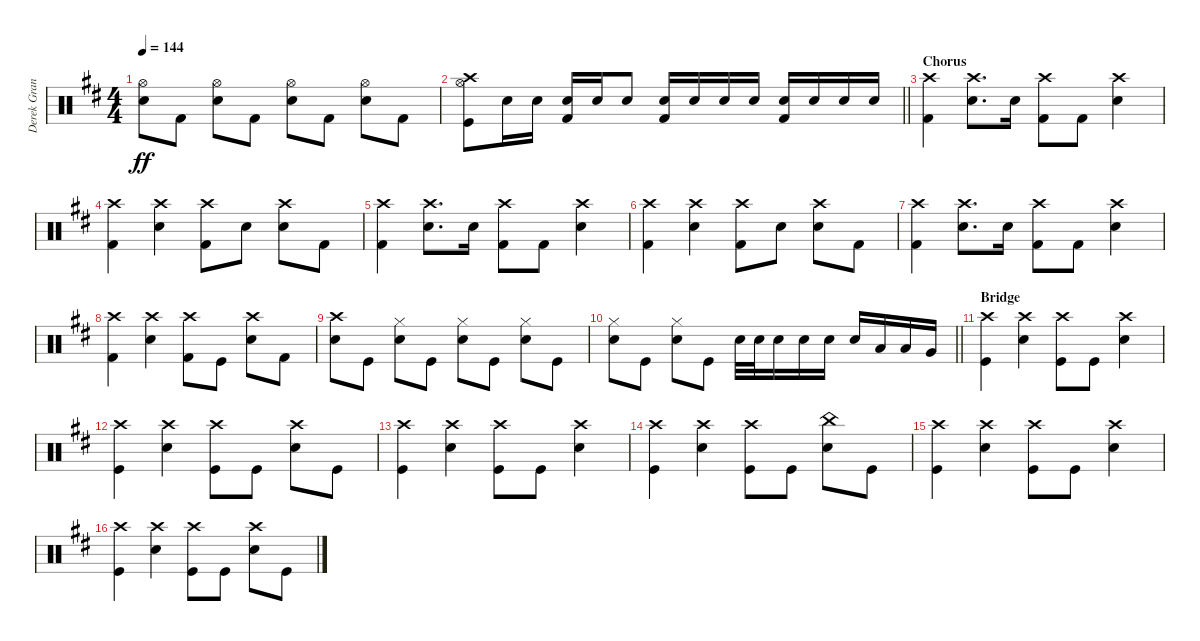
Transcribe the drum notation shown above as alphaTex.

\track ("Derek Grant - Drums" "Derek Gran") {instrument percussion}
\staff {score}
\articulation defaults
\ts (4 4)
\tempo 144
\clef neutral
\ks d
("Snare (hit) 2" "Hi-Hat (open)").8{dy ff} "Kick (hit) 2".8 ("Snare (hit) 2" "Hi-Hat (open)").8 "Kick (hit) 2".8 ("Snare (hit) 2" "Hi-Hat (open)").8 "Kick (hit) 2".8 ("Snare (hit) 2" "Hi-Hat (open)").8 "Kick (hit) 2".8 |
\barLineRight lightlight
("Hi-Hat (open)" "Crash high (hit)" "Kick (hit)").8 "Snare (hit) 2".16 "Snare (hit) 2".16 ("Snare (hit) 2" "Kick (hit) 2").16 "Snare (hit) 2".16 "Snare (hit) 2".8 ("Snare (hit) 2" "Kick (hit) 2").16 "Snare (hit) 2".16 "Snare (hit) 2".16 "Snare (hit) 2".16 ("Snare (hit) 2" "Kick (hit) 2").16 "Snare (hit) 2".16 "Snare (hit) 2".16 "Snare (hit) 2".16 |
\section ("" "Chorus")
("Crash high (hit)" "Kick (hit) 2").4 ("Snare (hit) 2" "Crash high (hit)").8{d} "Snare (hit) 2".16 ("Kick (hit) 2" "Crash high (hit)").8 "Kick (hit) 2".8 ("Snare (hit) 2" "Crash high (hit)").4 |
("Kick (hit) 2" "Crash high (hit)").4 ("Snare (hit) 2" "Crash high (hit)").4 ("Kick (hit) 2" "Crash high (hit)").8 "Snare (hit) 2".8 ("Snare (hit) 2" "Crash high (hit)").8 "Kick (hit) 2".8 |
("Crash high (hit)" "Kick (hit) 2").4 ("Snare (hit) 2" "Crash high (hit)").8{d} "Snare (hit) 2".16 ("Kick (hit) 2" "Crash high (hit)").8 "Kick (hit) 2".8 ("Snare (hit) 2" "Crash high (hit)").4 |
("Kick (hit) 2" "Crash high (hit)").4 ("Snare (hit) 2" "Crash high (hit)").4 ("Kick (hit) 2" "Crash high (hit)").8 "Snare (hit) 2".8 ("Snare (hit) 2" "Crash high (hit)").8 "Kick (hit) 2".8 |
("Crash high (hit)" "Kick (hit) 2").4 ("Snare (hit) 2" "Crash high (hit)").8{d} "Snare (hit) 2".16 ("Kick (hit) 2" "Crash high (hit)").8 "Kick (hit) 2".8 ("Snare (hit) 2" "Crash high (hit)").4 |
("Kick (hit) 2" "Crash high (hit)").4 ("Snare (hit) 2" "Crash high (hit)").4 ("Kick (hit) 2" "Crash high (hit)").8 "Kick (hit)".8 ("Snare (hit) 2" "Crash high (hit)").8 "Kick (hit) 2".8 |
("Crash high (hit)" "Snare (hit) 2").8 "Kick (hit)".8 ("Hi-Hat (closed)" "Snare (hit) 2").8 "Kick (hit)".8 ("Hi-Hat (closed)" "Snare (hit) 2").8 "Kick (hit)".8 ("Hi-Hat (closed)" "Snare (hit) 2").8 "Kick (hit)".8 |
\barLineRight lightlight
("Hi-Hat (closed)" "Snare (hit) 2").8 "Kick (hit)".8 ("Hi-Hat (closed)" "Snare (hit) 2").8 "Kick (hit)".8 "Snare (hit) 2".32 "Snare (hit) 2".32 "Snare (hit) 2".16 "Snare (hit) 2".16 "Snare (hit) 2".16 "Snare (hit) 2".16 "Low Tom (hit)".16 "Low Tom (hit)".16 "Very Low Tom (hit)".16 |
\section ("" "Bridge")
("Crash high (hit)" "Kick (hit)").4 ("Snare (hit) 2" "Crash high (hit)").4 ("Kick (hit)" "Crash high (hit)").8 "Kick (hit)".8 ("Crash high (hit)" "Snare (hit) 2").4 |
("Crash high (hit)" "Kick (hit)").4 ("Snare (hit) 2" "Crash high (hit)").4 ("Kick (hit)" "Crash high (hit)").8 "Kick (hit)".8 ("Crash high (hit)" "Snare (hit) 2").8 "Kick (hit)".8 |
("Crash high (hit)" "Kick (hit)").4 ("Snare (hit) 2" "Crash high (hit)").4 ("Kick (hit)" "Crash high (hit)").8 "Kick (hit)".8 ("Crash high (hit)" "Snare (hit) 2").4 |
("Crash high (hit)" "Kick (hit)").4 ("Snare (hit) 2" "Crash high (hit)").4 ("Kick (hit)" "Crash high (hit)").8 "Kick (hit)".8 ("China (hit)" "Snare (hit) 2").8 "Kick (hit)".8 |
("Crash high (hit)" "Kick (hit)").4 ("Snare (hit) 2" "Crash high (hit)").4 ("Kick (hit)" "Crash high (hit)").8 "Kick (hit)".8 ("Crash high (hit)" "Snare (hit) 2").4 |
("Crash high (hit)" "Kick (hit)").4 ("Snare (hit) 2" "Crash high (hit)").4 ("Kick (hit)" "Crash high (hit)").8 "Kick (hit)".8 ("Crash high (hit)" "Snare (hit) 2").8 "Kick (hit)".8
